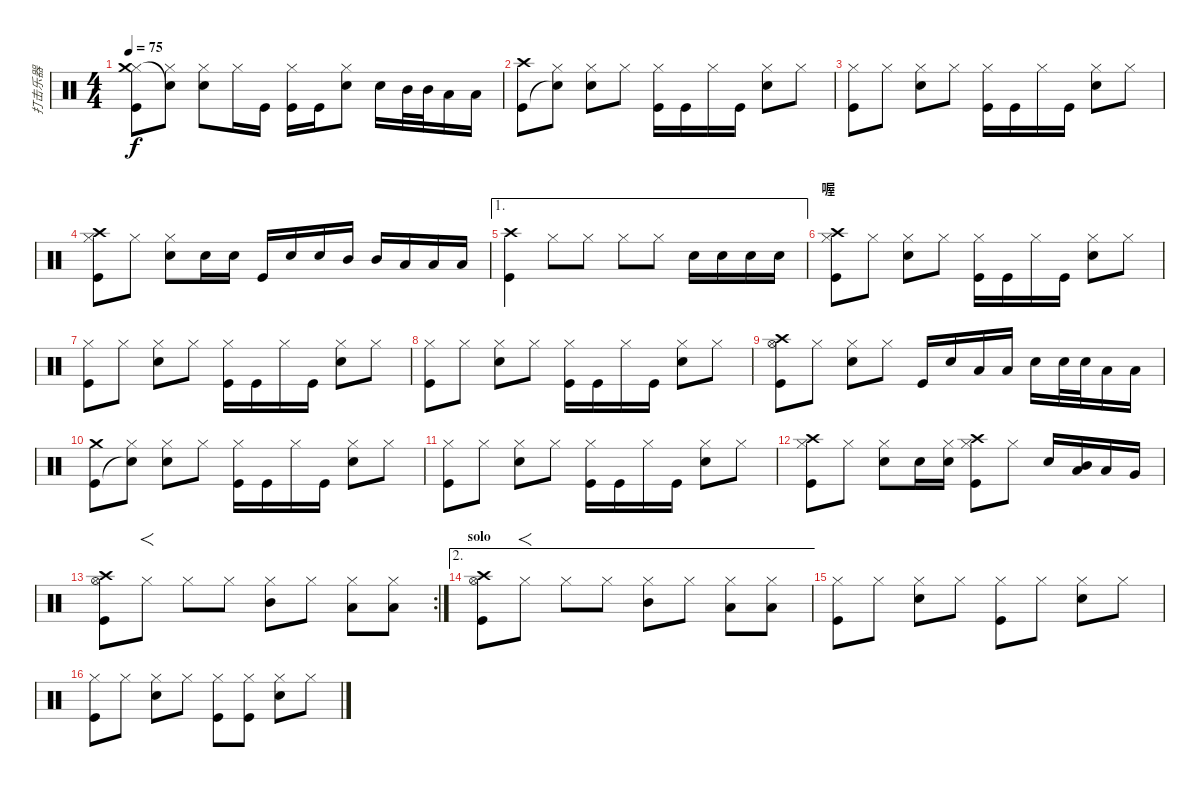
\track ("打击乐器" "打击乐器") {instrument percussion}
\staff {score}
\articulation defaults
\ts (4 4)
\tempo 75
\clef neutral
\ks c
("Hi-Hat (closed)" "Crash medium (hit)" "Kick (hit)").8{dy f} ("Hi-Hat (closed)" "Snare (hit)"{t}).8 ("Hi-Hat (closed)" "Electric Snare (hit)").8 "Hi-Hat (closed)".16 "Kick (hit)".16 ("Hi-Hat (closed)" "Kick (hit)").16 "Kick (hit)".16 ("Hi-Hat (closed)" "Electric Snare (hit)").8 "Electric Snare (hit)".16 "Mid Tom (hit)".32 "Mid Tom (hit)".32 "Low Tom (hit)".16 "Low Floor Tom (hit)".16 |
("Crash high (hit)" "Kick (hit)").8 ("Hi-Hat (closed)" "Snare (hit)"{t}).8 ("Hi-Hat (closed)" "Electric Snare (hit)").8 "Hi-Hat (closed)".8 ("Hi-Hat (closed)" "Kick (hit)").16 "Kick (hit)".16 "Hi-Hat (closed)".16 "Kick (hit)".16 ("Hi-Hat (closed)" "Electric Snare (hit)").8 "Hi-Hat (closed)".8 |
("Hi-Hat (closed)" "Kick (hit)").8 "Hi-Hat (closed)".8 ("Hi-Hat (closed)" "Electric Snare (hit)").8 "Hi-Hat (closed)".8 ("Hi-Hat (closed)" "Kick (hit)").16 "Kick (hit)".16 "Hi-Hat (closed)".16 "Kick (hit)".16 ("Hi-Hat (closed)" "Electric Snare (hit)").8 "Hi-Hat (closed)".8 |
("Hi-Hat (closed)" "Crash high (hit)" "Kick (hit)").8 "Hi-Hat (closed)".8 ("Hi-Hat (closed)" "Electric Snare (hit)").8 "Electric Snare (hit)".16 "Electric Snare (hit)".16 "Kick (hit)".16 "Electric Snare (hit)".16 "Electric Snare (hit)".16 "Mid Tom (hit)".16 "Mid Tom (hit)".16 "Low Tom (hit)".16 "Low Tom (hit)".16 "Low Floor Tom (hit)".16 |
\ae 1
("Crash high (hit)" "Kick (hit)").4 "Hi-Hat (closed)".8 "Hi-Hat (closed)".8 "Hi-Hat (closed)".8 "Hi-Hat (closed)".8 "Electric Snare (hit)".16 "Electric Snare (hit)".16 "Electric Snare (hit)".16 "Electric Snare (hit)".16 |
\section ("" "喔")
("Hi-Hat (closed)" "Crash high (hit)" "Kick (hit)").8 "Hi-Hat (closed)".8 ("Hi-Hat (closed)" "Electric Snare (hit)").8 "Hi-Hat (closed)".8 ("Hi-Hat (closed)" "Kick (hit)").16 "Kick (hit)".16 "Hi-Hat (closed)".16 "Kick (hit)".16 ("Hi-Hat (closed)" "Electric Snare (hit)").8 "Hi-Hat (closed)".8 |
("Hi-Hat (closed)" "Kick (hit)").8 "Hi-Hat (closed)".8 ("Hi-Hat (closed)" "Electric Snare (hit)").8 "Hi-Hat (closed)".8 ("Hi-Hat (closed)" "Kick (hit)").16 "Kick (hit)".16 "Hi-Hat (closed)".16 "Kick (hit)".16 ("Hi-Hat (closed)" "Electric Snare (hit)").8 "Hi-Hat (closed)".8 |
("Hi-Hat (closed)" "Kick (hit)").8 "Hi-Hat (closed)".8 ("Hi-Hat (closed)" "Electric Snare (hit)").8 "Hi-Hat (closed)".8 ("Hi-Hat (closed)" "Kick (hit)").16 "Kick (hit)".16 "Hi-Hat (closed)".16 "Kick (hit)".16 ("Hi-Hat (closed)" "Electric Snare (hit)").8 "Hi-Hat (closed)".8 |
("Crash high (hit)" "Hi-Hat (open)"{tr (49 16)} "Kick (hit)").8 "Hi-Hat (closed)".8 ("Hi-Hat (closed)" "Electric Snare (hit)").8 "Hi-Hat (closed)".8 "Kick (hit)".16 "Electric Snare (hit)".16 "Low Tom (hit)".16 "Low Floor Tom (hit)".16 "Electric Snare (hit)".16 "Electric Snare (hit)".32 "Electric Snare (hit)".32 "Low Tom (hit)".16 "Low Floor Tom (hit)".16 |
("Crash medium (hit)" "Kick (hit)").8 ("Hi-Hat (closed)" "Snare (hit)"{t}).8 ("Hi-Hat (closed)" "Electric Snare (hit)").8 "Hi-Hat (closed)".8 ("Hi-Hat (closed)" "Kick (hit)").16 "Kick (hit)".16 "Hi-Hat (closed)".16 "Kick (hit)".16 ("Hi-Hat (closed)" "Electric Snare (hit)").8 "Hi-Hat (closed)".8 |
("Hi-Hat (closed)" "Kick (hit)").8 "Hi-Hat (closed)".8 ("Hi-Hat (closed)" "Electric Snare (hit)").8 "Hi-Hat (closed)".8 ("Hi-Hat (closed)" "Kick (hit)").16 "Kick (hit)".16 "Hi-Hat (closed)".16 "Kick (hit)".16 ("Hi-Hat (closed)" "Electric Snare (hit)").8 "Hi-Hat (closed)".8 |
("Hi-Hat (closed)" "Crash high (hit)" "Kick (hit)").8 "Hi-Hat (closed)".8 ("Hi-Hat (closed)" "Electric Snare (hit)").8 "Electric Snare (hit)".16 ("Hi-Hat (closed)" "Electric Snare (hit)").16 ("Hi-Hat (closed)" "Crash high (hit)" "Kick (hit)").8 "Hi-Hat (closed)".8 "Electric Snare (hit)".16 ("Mid Tom (hit)" "Low Tom (hit)").16 "Low Tom (hit)".16 "Very Low Tom (hit)".16 |
\rc 2
("Crash high (hit)" "Hi-Hat (open)"{tr (49 16)} "Kick (hit)").8 "Hi-Hat (closed)".8{f} "Hi-Hat (closed)".8 "Hi-Hat (closed)".8 ("Hi-Hat (closed)" "Mid Tom (hit)").8 "Hi-Hat (closed)".8 ("Hi-Hat (closed)" "Low Tom (hit)").8 ("Hi-Hat (closed)" "Low Floor Tom (hit)").8 |
\ae 2
\section ("" "solo")
("Crash high (hit)" "Hi-Hat (open)"{tr (49 16)} "Kick (hit)").8 "Hi-Hat (closed)".8{f} "Hi-Hat (closed)".8 "Hi-Hat (closed)".8 ("Hi-Hat (closed)" "Mid Tom (hit)").8 "Hi-Hat (closed)".8 ("Hi-Hat (closed)" "Low Tom (hit)").8 ("Hi-Hat (closed)" "Low Floor Tom (hit)").8 |
("Hi-Hat (closed)" "Kick (hit)").8 "Hi-Hat (closed)".8 ("Hi-Hat (closed)" "Electric Snare (hit)").8 "Hi-Hat (closed)".8 ("Hi-Hat (closed)" "Kick (hit)").8 "Hi-Hat (closed)".8 ("Hi-Hat (closed)" "Electric Snare (hit)").8 "Hi-Hat (closed)".8 |
("Hi-Hat (closed)" "Kick (hit)").8 "Hi-Hat (closed)".8 ("Hi-Hat (closed)" "Electric Snare (hit)").8 "Hi-Hat (closed)".8 ("Hi-Hat (closed)" "Kick (hit)").8 ("Hi-Hat (closed)" "Kick (hit)").8 ("Hi-Hat (closed)" "Electric Snare (hit)").8 "Hi-Hat (closed)".8
